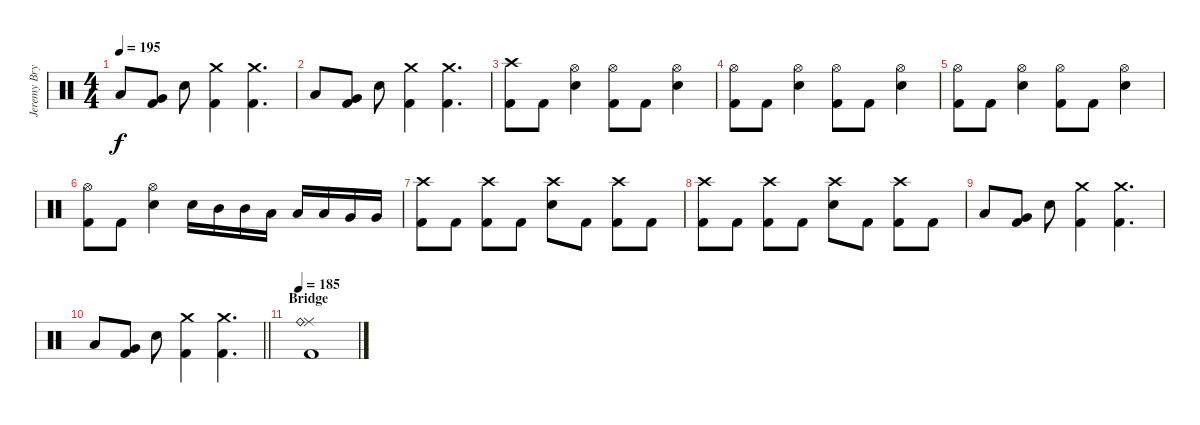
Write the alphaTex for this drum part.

\track ("Jeremy Bryan - Drums" "Jeremy Bry") {instrument percussion}
\staff {score}
\articulation defaults
\ts (4 4)
\tempo 195
\clef neutral
\ks c "Low Tom (hit)".8{dy f}
("Very Low Tom (hit)" "Kick (hit) 2").8 "Electric Snare (hit)".8 ("Crash medium (hit)" "Kick (hit) 2").4 ("Crash medium (hit)" "Kick (hit) 2").4{d} |
"Low Tom (hit)".8 ("Very Low Tom (hit)" "Kick (hit) 2").8 "Electric Snare (hit)".8 ("Crash medium (hit)" "Kick (hit) 2").4 ("Crash medium (hit)" "Kick (hit) 2").4{d} |
("Crash high (hit)" "Kick (hit) 2").8 "Kick (hit) 2".8 ("Hi-Hat (open)" "Electric Snare (hit)").4 ("Hi-Hat (open)" "Kick (hit) 2").8 "Kick (hit) 2".8 ("Hi-Hat (open)" "Electric Snare (hit)").4 |
("Hi-Hat (open)" "Kick (hit) 2").8 "Kick (hit) 2".8 ("Hi-Hat (open)" "Electric Snare (hit)").4 ("Hi-Hat (open)" "Kick (hit) 2").8 "Kick (hit) 2".8 ("Hi-Hat (open)" "Electric Snare (hit)").4 |
("Hi-Hat (open)" "Kick (hit) 2").8 "Kick (hit) 2".8 ("Hi-Hat (open)" "Electric Snare (hit)").4 ("Hi-Hat (open)" "Kick (hit) 2").8 "Kick (hit) 2".8 ("Hi-Hat (open)" "Electric Snare (hit)").4 |
("Hi-Hat (open)" "Kick (hit) 2").8 "Kick (hit) 2".8 ("Hi-Hat (open)" "Electric Snare (hit)").4 "Electric Snare (hit)".16 "Mid Tom (hit)".16 "Mid Tom (hit)".16 "Low Tom (hit)".16 "Low Tom (hit)".16 "Low Tom (hit)".16 "Very Low Tom (hit)".16 "Very Low Tom (hit)".16 |
("Crash high (hit)" "Kick (hit) 2").8 "Kick (hit) 2".8 ("Crash high (hit)" "Kick (hit) 2").8 "Kick (hit) 2".8 ("Crash high (hit)" "Electric Snare (hit)").8 "Kick (hit) 2".8 ("Crash high (hit)" "Kick (hit) 2").8 "Kick (hit) 2".8 |
("Crash high (hit)" "Kick (hit) 2").8 "Kick (hit) 2".8 ("Crash high (hit)" "Kick (hit) 2").8 "Kick (hit) 2".8 ("Crash high (hit)" "Electric Snare (hit)").8 "Kick (hit) 2".8 ("Crash high (hit)" "Kick (hit) 2").8 "Kick (hit) 2".8 |
"Low Tom (hit)".8 ("Very Low Tom (hit)" "Kick (hit) 2").8 "Electric Snare (hit)".8 ("Crash medium (hit)" "Kick (hit) 2").4 ("Crash medium (hit)" "Kick (hit) 2").4{d} |
\barLineRight lightlight "Low Tom (hit)".8
("Very Low Tom (hit)" "Kick (hit) 2").8 "Electric Snare (hit)".8 ("Crash medium (hit)" "Kick (hit) 2").4 ("Crash medium (hit)" "Kick (hit) 2").4{d} |
\section ("" "Bridge")
\tempo 185
("Ride (middle)" "Ride (bell)" "Kick (hit) 2").1
